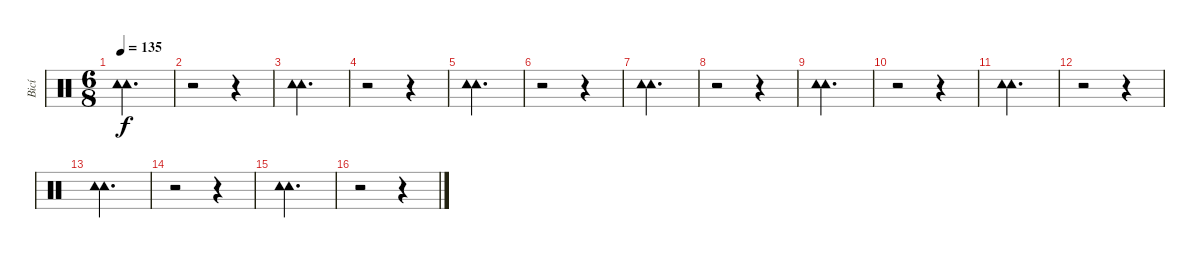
\track ("Bicí" "Bicí") {instrument percussion}
\staff {score}
\articulation defaults
\ts (6 8)
\tempo 135
\clef neutral
\ks c
("Tambourine (hit)" "Tambourine (hit)").2{d dy f} |
r.2 r.4 |
("Tambourine (hit)" "Tambourine (hit)").2{d} |
r.2 r.4 |
("Tambourine (hit)" "Tambourine (hit)").2{d} |
r.2 r.4 |
("Tambourine (hit)" "Tambourine (hit)").2{d} |
r.2 r.4 |
("Tambourine (hit)" "Tambourine (hit)").2{d} |
r.2 r.4 |
("Tambourine (hit)" "Tambourine (hit)").2{d} |
r.2 r.4 |
("Tambourine (hit)" "Tambourine (hit)").2{d} |
r.2 r.4 |
("Tambourine (hit)" "Tambourine (hit)").2{d} |
r.2 r.4
